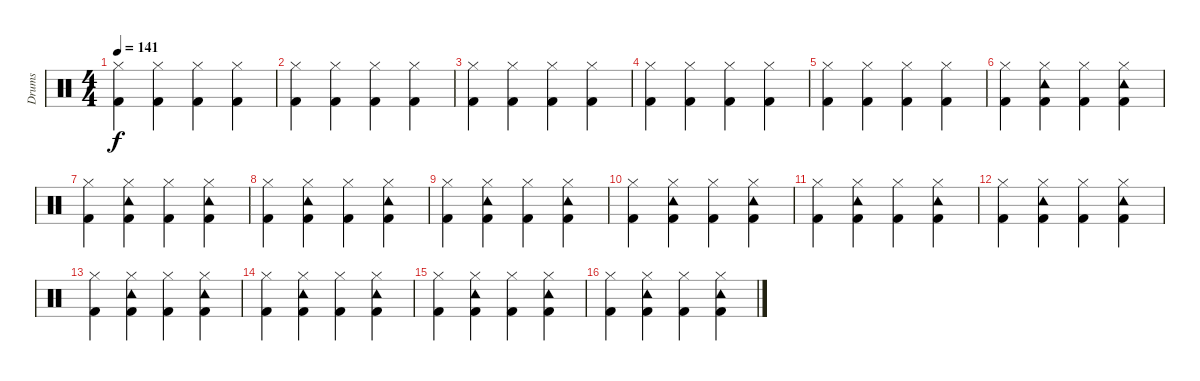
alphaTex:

\track ("Drums" "Drums") {instrument percussion}
\staff {score}
\articulation defaults
\ts (4 4)
\tempo 141
\clef neutral
\ks c
("Hi-Hat (closed)" "Kick (hit) 2").4{dy f} ("Hi-Hat (closed)" "Kick (hit) 2").4 ("Hi-Hat (closed)" "Kick (hit) 2").4 ("Hi-Hat (closed)" "Kick (hit) 2").4 |
("Hi-Hat (closed)" "Kick (hit) 2").4 ("Hi-Hat (closed)" "Kick (hit) 2").4 ("Hi-Hat (closed)" "Kick (hit) 2").4 ("Hi-Hat (closed)" "Kick (hit) 2").4 |
("Hi-Hat (closed)" "Kick (hit) 2").4 ("Hi-Hat (closed)" "Kick (hit) 2").4 ("Hi-Hat (closed)" "Kick (hit) 2").4 ("Hi-Hat (closed)" "Kick (hit) 2").4 |
("Hi-Hat (closed)" "Kick (hit) 2").4 ("Hi-Hat (closed)" "Kick (hit) 2").4 ("Hi-Hat (closed)" "Kick (hit) 2").4 ("Hi-Hat (closed)" "Kick (hit) 2").4 |
("Hi-Hat (closed)" "Kick (hit) 2").4 ("Hi-Hat (closed)" "Kick (hit) 2").4 ("Hi-Hat (closed)" "Kick (hit) 2").4 ("Hi-Hat (closed)" "Kick (hit) 2").4 |
("Hi-Hat (closed)" "Kick (hit) 2").4 ("Hi-Hat (closed)" "Tambourine (hit)" "Kick (hit) 2").4 ("Hi-Hat (closed)" "Kick (hit) 2").4 ("Hi-Hat (closed)" "Tambourine (hit)" "Kick (hit) 2").4 |
("Hi-Hat (closed)" "Kick (hit) 2").4 ("Hi-Hat (closed)" "Tambourine (hit)" "Kick (hit) 2").4 ("Hi-Hat (closed)" "Kick (hit) 2").4 ("Hi-Hat (closed)" "Tambourine (hit)" "Kick (hit) 2").4 |
("Hi-Hat (closed)" "Kick (hit) 2").4 ("Hi-Hat (closed)" "Tambourine (hit)" "Kick (hit) 2").4 ("Hi-Hat (closed)" "Kick (hit) 2").4 ("Hi-Hat (closed)" "Tambourine (hit)" "Kick (hit) 2").4 |
("Hi-Hat (closed)" "Kick (hit) 2").4 ("Hi-Hat (closed)" "Tambourine (hit)" "Kick (hit) 2").4 ("Hi-Hat (closed)" "Kick (hit) 2").4 ("Hi-Hat (closed)" "Tambourine (hit)" "Kick (hit) 2").4 |
("Hi-Hat (closed)" "Kick (hit) 2").4 ("Hi-Hat (closed)" "Tambourine (hit)" "Kick (hit) 2").4 ("Hi-Hat (closed)" "Kick (hit) 2").4 ("Hi-Hat (closed)" "Tambourine (hit)" "Kick (hit) 2").4 |
("Hi-Hat (closed)" "Kick (hit) 2").4 ("Hi-Hat (closed)" "Tambourine (hit)" "Kick (hit) 2").4 ("Hi-Hat (closed)" "Kick (hit) 2").4 ("Hi-Hat (closed)" "Tambourine (hit)" "Kick (hit) 2").4 |
("Hi-Hat (closed)" "Kick (hit) 2").4 ("Hi-Hat (closed)" "Tambourine (hit)" "Kick (hit) 2").4 ("Hi-Hat (closed)" "Kick (hit) 2").4 ("Hi-Hat (closed)" "Tambourine (hit)" "Kick (hit) 2").4 |
("Hi-Hat (closed)" "Kick (hit) 2").4 ("Hi-Hat (closed)" "Tambourine (hit)" "Kick (hit) 2").4 ("Hi-Hat (closed)" "Kick (hit) 2").4 ("Hi-Hat (closed)" "Tambourine (hit)" "Kick (hit) 2").4 |
("Hi-Hat (closed)" "Kick (hit) 2").4 ("Hi-Hat (closed)" "Tambourine (hit)" "Kick (hit) 2").4 ("Hi-Hat (closed)" "Kick (hit) 2").4 ("Hi-Hat (closed)" "Tambourine (hit)" "Kick (hit) 2").4 |
("Hi-Hat (closed)" "Kick (hit) 2").4 ("Hi-Hat (closed)" "Tambourine (hit)" "Kick (hit) 2").4 ("Hi-Hat (closed)" "Kick (hit) 2").4 ("Hi-Hat (closed)" "Tambourine (hit)" "Kick (hit) 2").4 |
("Hi-Hat (closed)" "Kick (hit) 2").4 ("Hi-Hat (closed)" "Tambourine (hit)" "Kick (hit) 2").4 ("Hi-Hat (closed)" "Kick (hit) 2").4 ("Hi-Hat (closed)" "Tambourine (hit)" "Kick (hit) 2").4
